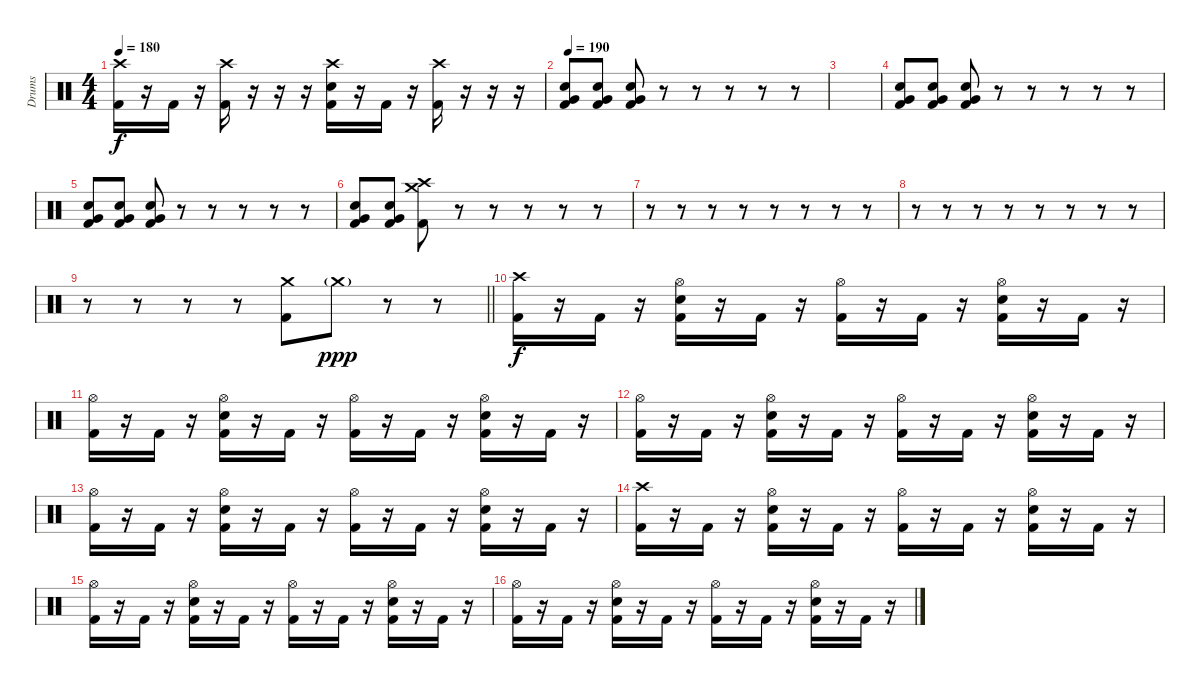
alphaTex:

\track ("Drums" "Drums") {instrument percussion}
\staff {score}
\articulation defaults
\ts (4 4)
\tempo 180
\clef neutral
\ks c
("Crash high (hit)" "Kick (hit) 2").16{dy f} r.16 "Kick (hit) 2".16 r.16 ("Crash high (hit)" "Kick (hit) 2").16 r.16 r.16 r.16 ("Crash high (hit)" "Electric Snare (hit)" "Kick (hit) 2").16 r.16 "Kick (hit) 2".16 r.16 ("Crash high (hit)" "Kick (hit) 2").16 r.16 r.16 r.16 |
\tempo 190
("Electric Snare (hit)" "Very Low Tom (hit)" "Kick (hit) 2").8 ("Electric Snare (hit)" "Very Low Tom (hit)" "Kick (hit) 2").8 ("Electric Snare (hit)" "Very Low Tom (hit)" "Kick (hit) 2").8 r.8 r.8 r.8 r.8 r.8 |
|
("Electric Snare (hit)" "Very Low Tom (hit)" "Kick (hit) 2").8 ("Electric Snare (hit)" "Very Low Tom (hit)" "Kick (hit) 2").8 ("Electric Snare (hit)" "Very Low Tom (hit)" "Kick (hit) 2").8 r.8 r.8 r.8 r.8 r.8 |
("Electric Snare (hit)" "Very Low Tom (hit)" "Kick (hit) 2").8 ("Electric Snare (hit)" "Very Low Tom (hit)" "Kick (hit) 2").8 ("Electric Snare (hit)" "Very Low Tom (hit)" "Kick (hit) 2").8 r.8 r.8 r.8 r.8 r.8 |
("Electric Snare (hit)" "Very Low Tom (hit)" "Kick (hit) 2").8 ("Electric Snare (hit)" "Very Low Tom (hit)" "Kick (hit) 2").8 ("Crash medium (hit)" "Crash high (hit)" "Kick (hit) 2").8 r.8 r.8 r.8 r.8 r.8 |
r.8 r.8 r.8 r.8 r.8 r.8 r.8 r.8 |
r.8 r.8 r.8 r.8 r.8 r.8 r.8 r.8 |
\barLineRight lightlight
r.8 r.8 r.8 r.8 ("Crash medium (hit)" "Kick (hit) 2").8 "Crash medium (hit)"{g}.8{dy ppp} r.8 r.8 |
("Crash high (hit)" "Kick (hit) 2").16{dy f} r.16 "Kick (hit) 2".16 r.16 ("Hi-Hat (open)" "Electric Snare (hit)" "Kick (hit) 2").16 r.16 "Kick (hit) 2".16 r.16 ("Hi-Hat (open)" "Kick (hit) 2").16 r.16 "Kick (hit) 2".16 r.16 ("Hi-Hat (open)" "Electric Snare (hit)" "Kick (hit) 2").16 r.16 "Kick (hit) 2".16 r.16 |
("Hi-Hat (open)" "Kick (hit) 2").16 r.16 "Kick (hit) 2".16 r.16 ("Hi-Hat (open)" "Electric Snare (hit)" "Kick (hit) 2").16 r.16 "Kick (hit) 2".16 r.16 ("Hi-Hat (open)" "Kick (hit) 2").16 r.16 "Kick (hit) 2".16 r.16 ("Hi-Hat (open)" "Electric Snare (hit)" "Kick (hit) 2").16 r.16 "Kick (hit) 2".16 r.16 |
("Hi-Hat (open)" "Kick (hit) 2").16 r.16 "Kick (hit) 2".16 r.16 ("Hi-Hat (open)" "Electric Snare (hit)" "Kick (hit) 2").16 r.16 "Kick (hit) 2".16 r.16 ("Hi-Hat (open)" "Kick (hit) 2").16 r.16 "Kick (hit) 2".16 r.16 ("Hi-Hat (open)" "Electric Snare (hit)" "Kick (hit) 2").16 r.16 "Kick (hit) 2".16 r.16 |
("Hi-Hat (open)" "Kick (hit) 2").16 r.16 "Kick (hit) 2".16 r.16 ("Hi-Hat (open)" "Electric Snare (hit)" "Kick (hit) 2").16 r.16 "Kick (hit) 2".16 r.16 ("Hi-Hat (open)" "Kick (hit) 2").16 r.16 "Kick (hit) 2".16 r.16 ("Hi-Hat (open)" "Electric Snare (hit)" "Kick (hit) 2").16 r.16 "Kick (hit) 2".16 r.16 |
("Crash high (hit)" "Kick (hit) 2").16 r.16 "Kick (hit) 2".16 r.16 ("Hi-Hat (open)" "Electric Snare (hit)" "Kick (hit) 2").16 r.16 "Kick (hit) 2".16 r.16 ("Hi-Hat (open)" "Kick (hit) 2").16 r.16 "Kick (hit) 2".16 r.16 ("Hi-Hat (open)" "Electric Snare (hit)" "Kick (hit) 2").16 r.16 "Kick (hit) 2".16 r.16 |
("Hi-Hat (open)" "Kick (hit) 2").16 r.16 "Kick (hit) 2".16 r.16 ("Hi-Hat (open)" "Electric Snare (hit)" "Kick (hit) 2").16 r.16 "Kick (hit) 2".16 r.16 ("Hi-Hat (open)" "Kick (hit) 2").16 r.16 "Kick (hit) 2".16 r.16 ("Hi-Hat (open)" "Electric Snare (hit)" "Kick (hit) 2").16 r.16 "Kick (hit) 2".16 r.16 |
("Hi-Hat (open)" "Kick (hit) 2").16 r.16 "Kick (hit) 2".16 r.16 ("Hi-Hat (open)" "Electric Snare (hit)" "Kick (hit) 2").16 r.16 "Kick (hit) 2".16 r.16 ("Hi-Hat (open)" "Kick (hit) 2").16 r.16 "Kick (hit) 2".16 r.16 ("Hi-Hat (open)" "Electric Snare (hit)" "Kick (hit) 2").16 r.16 "Kick (hit) 2".16 r.16
